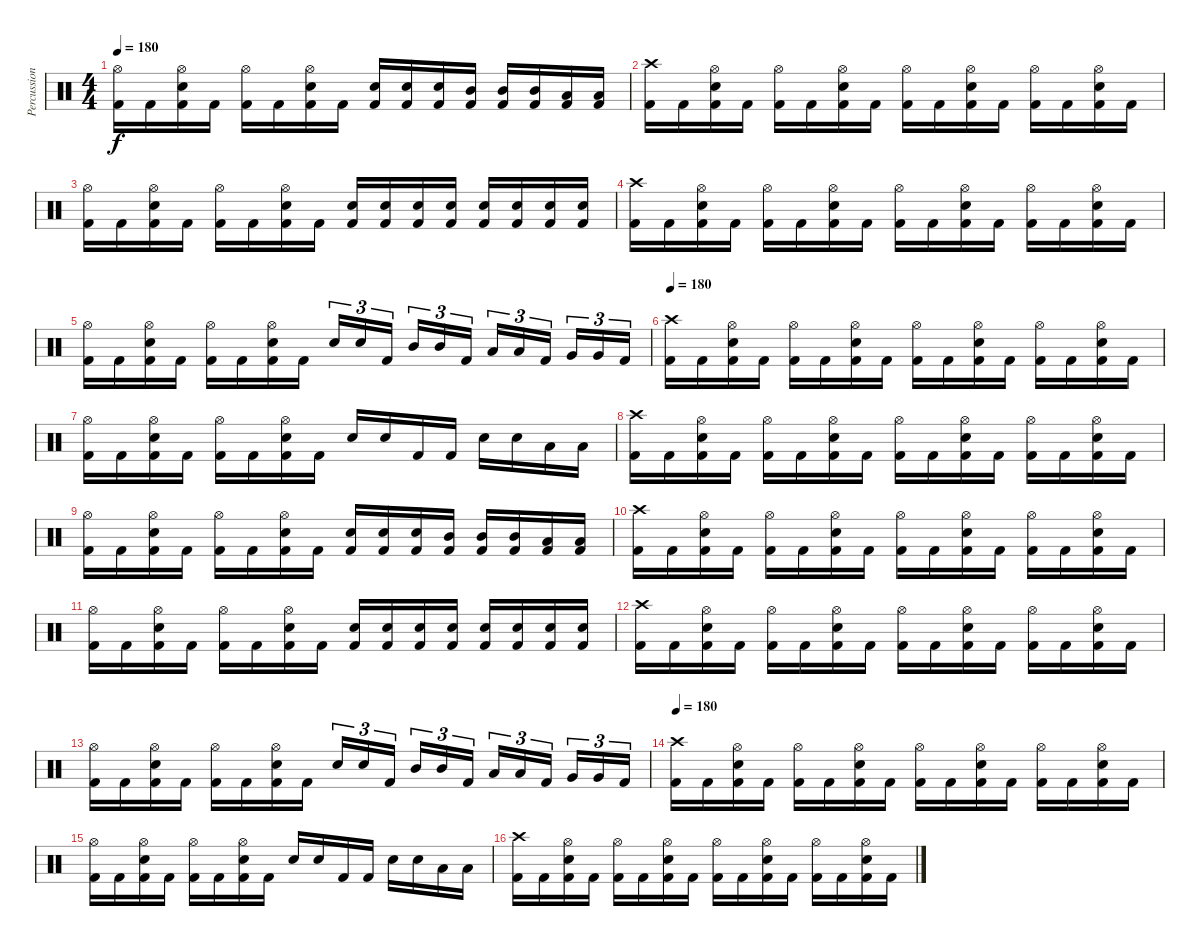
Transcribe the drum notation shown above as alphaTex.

\track ("Percussion" "Percussion") {instrument percussion}
\staff {score}
\articulation defaults
\ts (4 4)
\tempo 180
\clef neutral
\ks c
("Hi-Hat (open)" "Kick (hit) 2").16{dy f} "Kick (hit) 2".16 ("Hi-Hat (open)" "Snare (hit) 2" "Kick (hit) 2").16 "Kick (hit) 2".16 ("Hi-Hat (open)" "Kick (hit) 2").16 "Kick (hit) 2".16 ("Hi-Hat (open)" "Snare (hit) 2" "Kick (hit) 2").16 "Kick (hit) 2".16 ("Snare (hit) 2" "Kick (hit) 2").16 ("Snare (hit) 2" "Kick (hit) 2").16 ("Snare (hit) 2" "Kick (hit) 2").16 ("Mid Tom (hit)" "Kick (hit) 2").16 ("Mid Tom (hit)" "Kick (hit) 2").16 ("Mid Tom (hit)" "Kick (hit) 2").16 ("Low Tom (hit)" "Kick (hit) 2").16 ("Low Tom (hit)" "Kick (hit) 2").16 |
("Crash high (hit)" "Kick (hit) 2").16 "Kick (hit) 2".16 ("Hi-Hat (open)" "Snare (hit) 2" "Kick (hit) 2").16 "Kick (hit) 2".16 ("Hi-Hat (open)" "Kick (hit) 2").16 "Kick (hit) 2".16 ("Hi-Hat (open)" "Snare (hit) 2" "Kick (hit) 2").16 "Kick (hit) 2".16 ("Hi-Hat (open)" "Kick (hit) 2").16 "Kick (hit) 2".16 ("Hi-Hat (open)" "Snare (hit) 2" "Kick (hit) 2").16 "Kick (hit) 2".16 ("Hi-Hat (open)" "Kick (hit) 2").16 "Kick (hit) 2".16 ("Hi-Hat (open)" "Snare (hit) 2" "Kick (hit) 2").16 "Kick (hit) 2".16 |
("Hi-Hat (open)" "Kick (hit) 2").16 "Kick (hit) 2".16 ("Hi-Hat (open)" "Snare (hit) 2" "Kick (hit) 2").16 "Kick (hit) 2".16 ("Hi-Hat (open)" "Kick (hit) 2").16 "Kick (hit) 2".16 ("Hi-Hat (open)" "Snare (hit) 2" "Kick (hit) 2").16 "Kick (hit) 2".16 ("Snare (hit) 2" "Kick (hit) 2").16 ("Snare (hit) 2" "Kick (hit) 2").16 ("Snare (hit) 2" "Kick (hit) 2").16 ("Snare (hit) 2" "Kick (hit) 2").16 ("Snare (hit) 2" "Kick (hit) 2").16 ("Snare (hit) 2" "Kick (hit) 2").16 ("Snare (hit) 2" "Kick (hit) 2").16 ("Snare (hit) 2" "Kick (hit) 2").16 |
("Crash high (hit)" "Kick (hit) 2").16 "Kick (hit) 2".16 ("Hi-Hat (open)" "Snare (hit) 2" "Kick (hit) 2").16 "Kick (hit) 2".16 ("Hi-Hat (open)" "Kick (hit) 2").16 "Kick (hit) 2".16 ("Hi-Hat (open)" "Snare (hit) 2" "Kick (hit) 2").16 "Kick (hit) 2".16 ("Hi-Hat (open)" "Kick (hit) 2").16 "Kick (hit) 2".16 ("Hi-Hat (open)" "Snare (hit) 2" "Kick (hit) 2").16 "Kick (hit) 2".16 ("Hi-Hat (open)" "Kick (hit) 2").16 "Kick (hit) 2".16 ("Hi-Hat (open)" "Snare (hit) 2" "Kick (hit) 2").16 "Kick (hit) 2".16 |
("Hi-Hat (open)" "Kick (hit) 2").16 "Kick (hit) 2".16 ("Hi-Hat (open)" "Snare (hit) 2" "Kick (hit) 2").16 "Kick (hit) 2".16 ("Hi-Hat (open)" "Kick (hit) 2").16 "Kick (hit) 2".16 ("Hi-Hat (open)" "Snare (hit) 2" "Kick (hit) 2").16 "Kick (hit) 2".16 "Snare (hit) 2".16{tu (3 2)} "Snare (hit) 2".16{tu (3 2)} "Kick (hit) 2".16{tu (3 2)} "Mid Tom (hit)".16{tu (3 2)} "Mid Tom (hit)".16{tu (3 2)} "Kick (hit) 2".16{tu (3 2)} "Low Tom (hit)".16{tu (3 2)} "Low Tom (hit)".16{tu (3 2)} "Kick (hit) 2".16{tu (3 2)} "Very Low Tom (hit)".16{tu (3 2)} "Very Low Tom (hit)".16{tu (3 2)} "Kick (hit) 2".16{tu (3 2)} |
\tempo 180
("Crash high (hit)" "Kick (hit) 2").16 "Kick (hit) 2".16 ("Hi-Hat (open)" "Snare (hit) 2" "Kick (hit) 2").16 "Kick (hit) 2".16 ("Hi-Hat (open)" "Kick (hit) 2").16 "Kick (hit) 2".16 ("Hi-Hat (open)" "Snare (hit) 2" "Kick (hit) 2").16 "Kick (hit) 2".16 ("Hi-Hat (open)" "Kick (hit) 2").16 "Kick (hit) 2".16 ("Hi-Hat (open)" "Snare (hit) 2" "Kick (hit) 2").16 "Kick (hit) 2".16 ("Hi-Hat (open)" "Kick (hit) 2").16 "Kick (hit) 2".16 ("Hi-Hat (open)" "Snare (hit) 2" "Kick (hit) 2").16 "Kick (hit) 2".16 |
("Hi-Hat (open)" "Kick (hit) 2").16 "Kick (hit) 2".16 ("Hi-Hat (open)" "Snare (hit) 2" "Kick (hit) 2").16 "Kick (hit) 2".16 ("Hi-Hat (open)" "Kick (hit) 2").16 "Kick (hit) 2".16 ("Hi-Hat (open)" "Snare (hit) 2" "Kick (hit) 2").16 "Kick (hit) 2".16 "Snare (hit) 2".16 "Snare (hit) 2".16 "Kick (hit) 2".16 "Kick (hit) 2".16 "Snare (hit) 2".16 "Snare (hit) 2".16 "Low Tom (hit)".16 "Low Tom (hit)".16 |
("Crash high (hit)" "Kick (hit) 2").16 "Kick (hit) 2".16 ("Hi-Hat (open)" "Snare (hit) 2" "Kick (hit) 2").16 "Kick (hit) 2".16 ("Hi-Hat (open)" "Kick (hit) 2").16 "Kick (hit) 2".16 ("Hi-Hat (open)" "Snare (hit) 2" "Kick (hit) 2").16 "Kick (hit) 2".16 ("Hi-Hat (open)" "Kick (hit) 2").16 "Kick (hit) 2".16 ("Hi-Hat (open)" "Snare (hit) 2" "Kick (hit) 2").16 "Kick (hit) 2".16 ("Hi-Hat (open)" "Kick (hit) 2").16 "Kick (hit) 2".16 ("Hi-Hat (open)" "Snare (hit) 2" "Kick (hit) 2").16 "Kick (hit) 2".16 |
("Hi-Hat (open)" "Kick (hit) 2").16 "Kick (hit) 2".16 ("Hi-Hat (open)" "Snare (hit) 2" "Kick (hit) 2").16 "Kick (hit) 2".16 ("Hi-Hat (open)" "Kick (hit) 2").16 "Kick (hit) 2".16 ("Hi-Hat (open)" "Snare (hit) 2" "Kick (hit) 2").16 "Kick (hit) 2".16 ("Snare (hit) 2" "Kick (hit) 2").16 ("Snare (hit) 2" "Kick (hit) 2").16 ("Snare (hit) 2" "Kick (hit) 2").16 ("Mid Tom (hit)" "Kick (hit) 2").16 ("Mid Tom (hit)" "Kick (hit) 2").16 ("Mid Tom (hit)" "Kick (hit) 2").16 ("Low Tom (hit)" "Kick (hit) 2").16 ("Low Tom (hit)" "Kick (hit) 2").16 |
("Crash high (hit)" "Kick (hit) 2").16 "Kick (hit) 2".16 ("Hi-Hat (open)" "Snare (hit) 2" "Kick (hit) 2").16 "Kick (hit) 2".16 ("Hi-Hat (open)" "Kick (hit) 2").16 "Kick (hit) 2".16 ("Hi-Hat (open)" "Snare (hit) 2" "Kick (hit) 2").16 "Kick (hit) 2".16 ("Hi-Hat (open)" "Kick (hit) 2").16 "Kick (hit) 2".16 ("Hi-Hat (open)" "Snare (hit) 2" "Kick (hit) 2").16 "Kick (hit) 2".16 ("Hi-Hat (open)" "Kick (hit) 2").16 "Kick (hit) 2".16 ("Hi-Hat (open)" "Snare (hit) 2" "Kick (hit) 2").16 "Kick (hit) 2".16 |
("Hi-Hat (open)" "Kick (hit) 2").16 "Kick (hit) 2".16 ("Hi-Hat (open)" "Snare (hit) 2" "Kick (hit) 2").16 "Kick (hit) 2".16 ("Hi-Hat (open)" "Kick (hit) 2").16 "Kick (hit) 2".16 ("Hi-Hat (open)" "Snare (hit) 2" "Kick (hit) 2").16 "Kick (hit) 2".16 ("Snare (hit) 2" "Kick (hit) 2").16 ("Snare (hit) 2" "Kick (hit) 2").16 ("Snare (hit) 2" "Kick (hit) 2").16 ("Snare (hit) 2" "Kick (hit) 2").16 ("Snare (hit) 2" "Kick (hit) 2").16 ("Snare (hit) 2" "Kick (hit) 2").16 ("Snare (hit) 2" "Kick (hit) 2").16 ("Snare (hit) 2" "Kick (hit) 2").16 |
("Crash high (hit)" "Kick (hit) 2").16 "Kick (hit) 2".16 ("Hi-Hat (open)" "Snare (hit) 2" "Kick (hit) 2").16 "Kick (hit) 2".16 ("Hi-Hat (open)" "Kick (hit) 2").16 "Kick (hit) 2".16 ("Hi-Hat (open)" "Snare (hit) 2" "Kick (hit) 2").16 "Kick (hit) 2".16 ("Hi-Hat (open)" "Kick (hit) 2").16 "Kick (hit) 2".16 ("Hi-Hat (open)" "Snare (hit) 2" "Kick (hit) 2").16 "Kick (hit) 2".16 ("Hi-Hat (open)" "Kick (hit) 2").16 "Kick (hit) 2".16 ("Hi-Hat (open)" "Snare (hit) 2" "Kick (hit) 2").16 "Kick (hit) 2".16 |
("Hi-Hat (open)" "Kick (hit) 2").16 "Kick (hit) 2".16 ("Hi-Hat (open)" "Snare (hit) 2" "Kick (hit) 2").16 "Kick (hit) 2".16 ("Hi-Hat (open)" "Kick (hit) 2").16 "Kick (hit) 2".16 ("Hi-Hat (open)" "Snare (hit) 2" "Kick (hit) 2").16 "Kick (hit) 2".16 "Snare (hit) 2".16{tu (3 2)} "Snare (hit) 2".16{tu (3 2)} "Kick (hit) 2".16{tu (3 2)} "Mid Tom (hit)".16{tu (3 2)} "Mid Tom (hit)".16{tu (3 2)} "Kick (hit) 2".16{tu (3 2)} "Low Tom (hit)".16{tu (3 2)} "Low Tom (hit)".16{tu (3 2)} "Kick (hit) 2".16{tu (3 2)} "Very Low Tom (hit)".16{tu (3 2)} "Very Low Tom (hit)".16{tu (3 2)} "Kick (hit) 2".16{tu (3 2)} |
\tempo 180
("Crash high (hit)" "Kick (hit) 2").16 "Kick (hit) 2".16 ("Hi-Hat (open)" "Snare (hit) 2" "Kick (hit) 2").16 "Kick (hit) 2".16 ("Hi-Hat (open)" "Kick (hit) 2").16 "Kick (hit) 2".16 ("Hi-Hat (open)" "Snare (hit) 2" "Kick (hit) 2").16 "Kick (hit) 2".16 ("Hi-Hat (open)" "Kick (hit) 2").16 "Kick (hit) 2".16 ("Hi-Hat (open)" "Snare (hit) 2" "Kick (hit) 2").16 "Kick (hit) 2".16 ("Hi-Hat (open)" "Kick (hit) 2").16 "Kick (hit) 2".16 ("Hi-Hat (open)" "Snare (hit) 2" "Kick (hit) 2").16 "Kick (hit) 2".16 |
("Hi-Hat (open)" "Kick (hit) 2").16 "Kick (hit) 2".16 ("Hi-Hat (open)" "Snare (hit) 2" "Kick (hit) 2").16 "Kick (hit) 2".16 ("Hi-Hat (open)" "Kick (hit) 2").16 "Kick (hit) 2".16 ("Hi-Hat (open)" "Snare (hit) 2" "Kick (hit) 2").16 "Kick (hit) 2".16 "Snare (hit) 2".16 "Snare (hit) 2".16 "Kick (hit) 2".16 "Kick (hit) 2".16 "Snare (hit) 2".16 "Snare (hit) 2".16 "Low Tom (hit)".16 "Low Tom (hit)".16 |
("Crash high (hit)" "Kick (hit) 2").16 "Kick (hit) 2".16 ("Hi-Hat (open)" "Snare (hit) 2" "Kick (hit) 2").16 "Kick (hit) 2".16 ("Hi-Hat (open)" "Kick (hit) 2").16 "Kick (hit) 2".16 ("Hi-Hat (open)" "Snare (hit) 2" "Kick (hit) 2").16 "Kick (hit) 2".16 ("Hi-Hat (open)" "Kick (hit) 2").16 "Kick (hit) 2".16 ("Hi-Hat (open)" "Snare (hit) 2" "Kick (hit) 2").16 "Kick (hit) 2".16 ("Hi-Hat (open)" "Kick (hit) 2").16 "Kick (hit) 2".16 ("Hi-Hat (open)" "Snare (hit) 2" "Kick (hit) 2").16 "Kick (hit) 2".16
